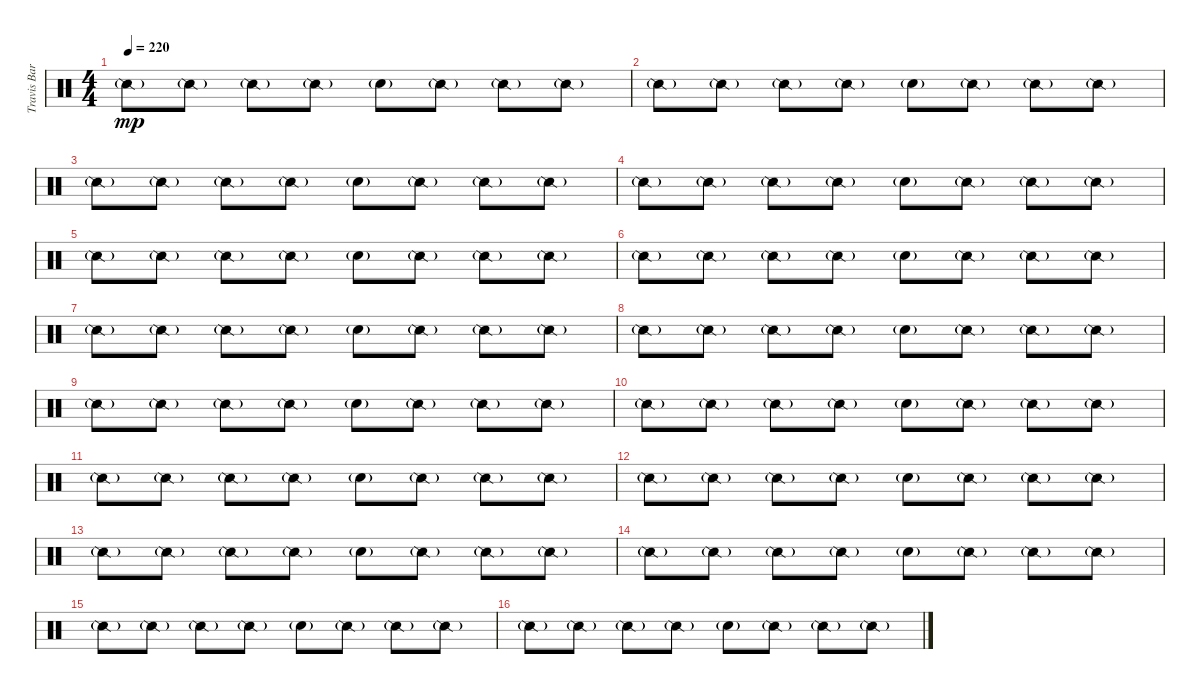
\track ("Travis Barker" "Travis Bar") {instrument percussion}
\staff {score}
\articulation defaults
\ts (4 4)
\tempo 220
\clef neutral
\ks c "Snare (side stick) 2"{g}.8{dy mp} "Snare (side stick) 2"{g}.8 "Snare (side stick) 2"{g}.8 "Snare (side stick) 2"{g}.8 "Electric Snare (hit)"{g}.8 "Snare (side stick) 2"{g}.8 "Snare (side stick) 2"{g}.8 "Snare (side stick) 2"{g}.8
|
"Snare (side stick) 2"{g}.8 "Snare (side stick) 2"{g}.8 "Snare (side stick) 2"{g}.8 "Snare (side stick) 2"{g}.8 "Electric Snare (hit)"{g}.8 "Snare (side stick) 2"{g}.8 "Snare (side stick) 2"{g}.8 "Snare (side stick) 2"{g}.8 |
"Snare (side stick) 2"{g}.8 "Snare (side stick) 2"{g}.8 "Snare (side stick) 2"{g}.8 "Snare (side stick) 2"{g}.8 "Electric Snare (hit)"{g}.8 "Snare (side stick) 2"{g}.8 "Snare (side stick) 2"{g}.8 "Snare (side stick) 2"{g}.8 |
"Snare (side stick) 2"{g}.8 "Snare (side stick) 2"{g}.8 "Snare (side stick) 2"{g}.8 "Snare (side stick) 2"{g}.8 "Electric Snare (hit)"{g}.8 "Snare (side stick) 2"{g}.8 "Snare (side stick) 2"{g}.8 "Snare (side stick) 2"{g}.8 |
"Snare (side stick) 2"{g}.8 "Snare (side stick) 2"{g}.8 "Snare (side stick) 2"{g}.8 "Snare (side stick) 2"{g}.8 "Electric Snare (hit)"{g}.8 "Snare (side stick) 2"{g}.8 "Snare (side stick) 2"{g}.8 "Snare (side stick) 2"{g}.8 |
"Snare (side stick) 2"{g}.8 "Snare (side stick) 2"{g}.8 "Snare (side stick) 2"{g}.8 "Snare (side stick) 2"{g}.8 "Electric Snare (hit)"{g}.8 "Snare (side stick) 2"{g}.8 "Snare (side stick) 2"{g}.8 "Snare (side stick) 2"{g}.8 |
"Snare (side stick) 2"{g}.8 "Snare (side stick) 2"{g}.8 "Snare (side stick) 2"{g}.8 "Snare (side stick) 2"{g}.8 "Electric Snare (hit)"{g}.8 "Snare (side stick) 2"{g}.8 "Snare (side stick) 2"{g}.8 "Snare (side stick) 2"{g}.8 |
"Snare (side stick) 2"{g}.8 "Snare (side stick) 2"{g}.8 "Snare (side stick) 2"{g}.8 "Snare (side stick) 2"{g}.8 "Electric Snare (hit)"{g}.8 "Snare (side stick) 2"{g}.8 "Snare (side stick) 2"{g}.8 "Snare (side stick) 2"{g}.8 |
"Snare (side stick) 2"{g}.8 "Snare (side stick) 2"{g}.8 "Snare (side stick) 2"{g}.8 "Snare (side stick) 2"{g}.8 "Electric Snare (hit)"{g}.8 "Snare (side stick) 2"{g}.8 "Snare (side stick) 2"{g}.8 "Snare (side stick) 2"{g}.8 |
"Snare (side stick) 2"{g}.8 "Snare (side stick) 2"{g}.8 "Snare (side stick) 2"{g}.8 "Snare (side stick) 2"{g}.8 "Electric Snare (hit)"{g}.8 "Snare (side stick) 2"{g}.8 "Snare (side stick) 2"{g}.8 "Snare (side stick) 2"{g}.8 |
"Snare (side stick) 2"{g}.8 "Snare (side stick) 2"{g}.8 "Snare (side stick) 2"{g}.8 "Snare (side stick) 2"{g}.8 "Electric Snare (hit)"{g}.8 "Snare (side stick) 2"{g}.8 "Snare (side stick) 2"{g}.8 "Snare (side stick) 2"{g}.8 |
"Snare (side stick) 2"{g}.8 "Snare (side stick) 2"{g}.8 "Snare (side stick) 2"{g}.8 "Snare (side stick) 2"{g}.8 "Electric Snare (hit)"{g}.8 "Snare (side stick) 2"{g}.8 "Snare (side stick) 2"{g}.8 "Snare (side stick) 2"{g}.8 |
"Snare (side stick) 2"{g}.8 "Snare (side stick) 2"{g}.8 "Snare (side stick) 2"{g}.8 "Snare (side stick) 2"{g}.8 "Electric Snare (hit)"{g}.8 "Snare (side stick) 2"{g}.8 "Snare (side stick) 2"{g}.8 "Snare (side stick) 2"{g}.8 |
"Snare (side stick) 2"{g}.8 "Snare (side stick) 2"{g}.8 "Snare (side stick) 2"{g}.8 "Snare (side stick) 2"{g}.8 "Electric Snare (hit)"{g}.8 "Snare (side stick) 2"{g}.8 "Snare (side stick) 2"{g}.8 "Snare (side stick) 2"{g}.8 |
"Snare (side stick) 2"{g}.8 "Snare (side stick) 2"{g}.8 "Snare (side stick) 2"{g}.8 "Snare (side stick) 2"{g}.8 "Electric Snare (hit)"{g}.8 "Snare (side stick) 2"{g}.8 "Snare (side stick) 2"{g}.8 "Snare (side stick) 2"{g}.8 |
"Snare (side stick) 2"{g}.8 "Snare (side stick) 2"{g}.8 "Snare (side stick) 2"{g}.8 "Snare (side stick) 2"{g}.8 "Electric Snare (hit)"{g}.8 "Snare (side stick) 2"{g}.8 "Snare (side stick) 2"{g}.8 "Snare (side stick) 2"{g}.8
